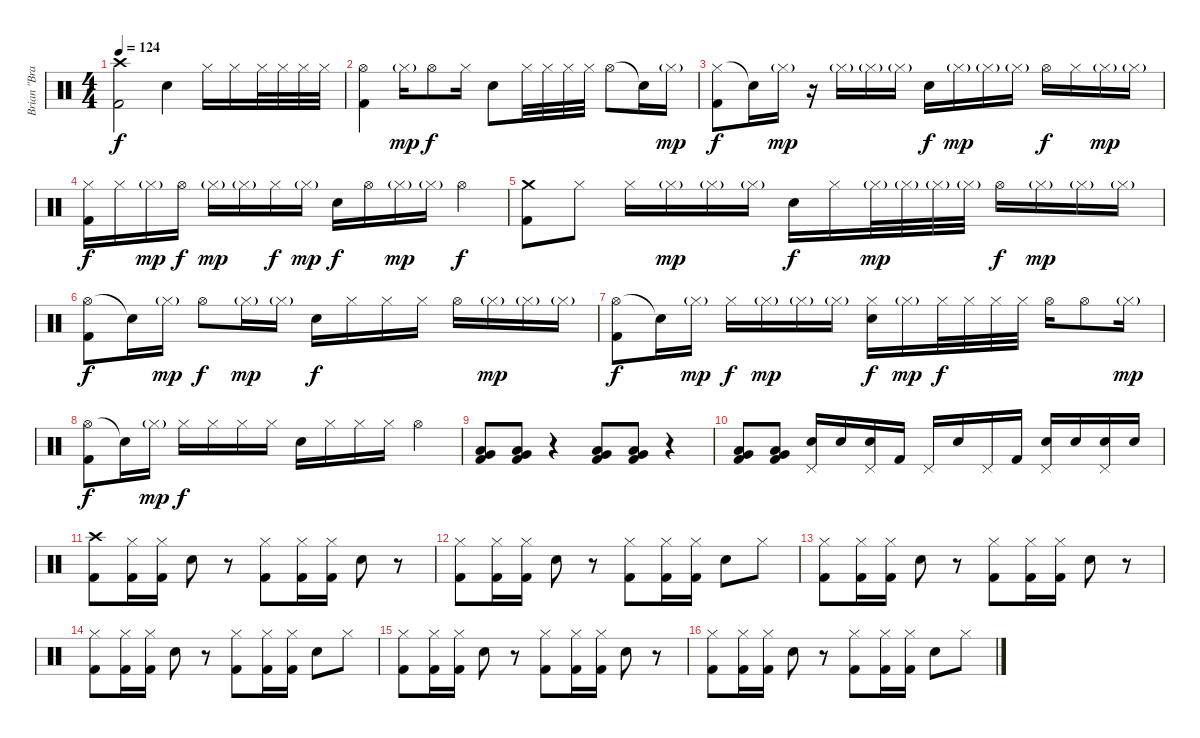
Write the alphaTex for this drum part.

\track ("Brian \"Brain\" Mantia / Drums" "Brian \"Bra") {instrument percussion}
\staff {score}
\articulation defaults
\ts (4 4)
\tempo 124
\clef neutral
\ks c
("Crash high (hit)" "Kick (hit) 2").2{dy f} "Electric Snare (hit)".4 "Hi-Hat (closed)".16 "Hi-Hat (closed)".16 "Hi-Hat (closed)".32 "Hi-Hat (closed)".32 "Hi-Hat (closed)".32 "Hi-Hat (closed)".32 |
("Hi-Hat (open)" "Kick (hit) 2").4 "Hi-Hat (closed)"{g}.16{dy mp} "Hi-Hat (open)".8{dy f} "Hi-Hat (closed)".16 "Electric Snare (hit)".8 "Hi-Hat (closed)".32 "Hi-Hat (closed)".32 "Hi-Hat (closed)".32 "Hi-Hat (closed)".32 "Hi-Hat (open)".8 "Snare (hit)"{t}.16 "Hi-Hat (closed)"{g}.16{dy mp} |
("Hi-Hat (closed)" "Kick (hit) 2").8{dy f} "Snare (hit)"{t}.16 "Hi-Hat (closed)"{g}.16{dy mp} r.16 "Hi-Hat (closed)"{g}.16 "Hi-Hat (closed)"{g}.16 "Hi-Hat (closed)"{g}.16 "Electric Snare (hit)".16{dy f} "Hi-Hat (closed)"{g}.16{dy mp} "Hi-Hat (closed)"{g}.16 "Hi-Hat (closed)"{g}.16 "Hi-Hat (open)".16{dy f} "Hi-Hat (closed)".16 "Hi-Hat (closed)"{g}.16{dy mp} "Hi-Hat (closed)"{g}.16 |
("Hi-Hat (closed)" "Kick (hit) 2").16{dy f} "Hi-Hat (closed)".16 "Hi-Hat (closed)"{g}.16{dy mp} "Hi-Hat (open)".16{dy f} "Hi-Hat (closed)"{g}.16{dy mp} "Hi-Hat (closed)"{g}.16 "Hi-Hat (closed)".16{dy f} "Hi-Hat (closed)"{g}.16{dy mp} "Electric Snare (hit)".16{dy f} "Hi-Hat (open)".16 "Hi-Hat (closed)"{g}.16{dy mp} "Hi-Hat (closed)"{g}.16 "Hi-Hat (open)".4{dy f} |
("Crash medium (hit)" "Kick (hit) 2").8 "Hi-Hat (closed)".8 "Hi-Hat (closed)".16 "Hi-Hat (closed)"{g}.16{dy mp} "Hi-Hat (closed)"{g}.16 "Hi-Hat (closed)"{g}.16 "Electric Snare (hit)".16{dy f} "Hi-Hat (closed)".16 "Hi-Hat (closed)"{g}.32{dy mp} "Hi-Hat (closed)"{g}.32 "Hi-Hat (closed)"{g}.32 "Hi-Hat (closed)"{g}.32 "Hi-Hat (open)".16{dy f} "Hi-Hat (closed)"{g}.16{dy mp} "Hi-Hat (closed)"{g}.16 "Hi-Hat (closed)"{g}.16 |
("Hi-Hat (open)" "Kick (hit) 2").8{dy f} "Snare (hit)"{t}.16 "Hi-Hat (closed)"{g}.16{dy mp} "Hi-Hat (open)".8{dy f} "Hi-Hat (closed)"{g}.16{dy mp} "Hi-Hat (closed)"{g}.16 "Electric Snare (hit)".16{dy f} "Hi-Hat (closed)".16 "Hi-Hat (closed)".16 "Hi-Hat (closed)".16 "Hi-Hat (open)".16 "Hi-Hat (closed)"{g}.16{dy mp} "Hi-Hat (closed)"{g}.16 "Hi-Hat (closed)"{g}.16 |
("Hi-Hat (open)" "Kick (hit) 2").8{dy f} "Snare (hit)"{t}.16 "Hi-Hat (closed)"{g}.16{dy mp} "Hi-Hat (closed)".16{dy f} "Hi-Hat (closed)"{g}.16{dy mp} "Hi-Hat (closed)"{g}.16 "Hi-Hat (closed)"{g}.16 ("Hi-Hat (closed)" "Electric Snare (hit)").16{dy f} "Hi-Hat (closed)"{g}.16{dy mp} "Hi-Hat (closed)".32{dy f} "Hi-Hat (closed)".32 "Hi-Hat (closed)".32 "Hi-Hat (closed)".32 "Hi-Hat (open)".16 "Hi-Hat (open)".8 "Hi-Hat (closed)"{g}.16{dy mp} |
("Hi-Hat (open)" "Kick (hit) 2").8{dy f} "Snare (hit)"{t}.16 "Hi-Hat (closed)"{g}.16{dy mp} "Hi-Hat (closed)".16{dy f} "Hi-Hat (closed)".16 "Hi-Hat (closed)".16 "Hi-Hat (closed)".16 "Electric Snare (hit)".16 "Hi-Hat (closed)".16 "Hi-Hat (closed)".16 "Hi-Hat (closed)".16 "Hi-Hat (open)".4 |
("Low Tom (hit)" "Very Low Tom (hit)" "Kick (hit) 2").8 ("Low Tom (hit)" "Very Low Tom (hit)" "Kick (hit) 2").8 r.4 ("Low Tom (hit)" "Very Low Tom (hit)" "Kick (hit) 2").8 ("Low Tom (hit)" "Very Low Tom (hit)" "Kick (hit) 2").8 r.4 |
("Low Tom (hit)" "Very Low Tom (hit)" "Kick (hit) 2").8 ("Low Tom (hit)" "Very Low Tom (hit)" "Kick (hit) 2").8 ("Pedal Hi-Hat (hit)" "Electric Snare (hit)").16 "Electric Snare (hit)".16 ("Pedal Hi-Hat (hit)" "Electric Snare (hit)").16 "Kick (hit) 2".16 "Pedal Hi-Hat (hit)".16 "Electric Snare (hit)".16 "Pedal Hi-Hat (hit)".16 "Kick (hit) 2".16 ("Pedal Hi-Hat (hit)" "Electric Snare (hit)").16 "Electric Snare (hit)".16 ("Pedal Hi-Hat (hit)" "Electric Snare (hit)").16 "Electric Snare (hit)".16 |
("Crash high (hit)" "Kick (hit) 2").8 ("Hi-Hat (closed)" "Kick (hit) 2").16 ("Hi-Hat (closed)" "Kick (hit) 2").16 "Electric Snare (hit)".8 r.8 ("Hi-Hat (closed)" "Kick (hit) 2").8 ("Hi-Hat (closed)" "Kick (hit) 2").16 ("Hi-Hat (closed)" "Kick (hit) 2").16 "Electric Snare (hit)".8 r.8 |
("Hi-Hat (closed)" "Kick (hit) 2").8 ("Hi-Hat (closed)" "Kick (hit) 2").16 ("Hi-Hat (closed)" "Kick (hit) 2").16 "Electric Snare (hit)".8 r.8 ("Hi-Hat (closed)" "Kick (hit) 2").8 ("Hi-Hat (closed)" "Kick (hit) 2").16 ("Hi-Hat (closed)" "Kick (hit) 2").16 "Electric Snare (hit)".8 "Hi-Hat (closed)".8 |
("Hi-Hat (closed)" "Kick (hit) 2").8 ("Hi-Hat (closed)" "Kick (hit) 2").16 ("Hi-Hat (closed)" "Kick (hit) 2").16 "Electric Snare (hit)".8 r.8 ("Hi-Hat (closed)" "Kick (hit) 2").8 ("Hi-Hat (closed)" "Kick (hit) 2").16 ("Hi-Hat (closed)" "Kick (hit) 2").16 "Electric Snare (hit)".8 r.8 |
("Hi-Hat (closed)" "Kick (hit) 2").8 ("Hi-Hat (closed)" "Kick (hit) 2").16 ("Hi-Hat (closed)" "Kick (hit) 2").16 "Electric Snare (hit)".8 r.8 ("Hi-Hat (closed)" "Kick (hit) 2").8 ("Hi-Hat (closed)" "Kick (hit) 2").16 ("Hi-Hat (closed)" "Kick (hit) 2").16 "Electric Snare (hit)".8 "Hi-Hat (closed)".8 |
("Hi-Hat (closed)" "Kick (hit) 2").8 ("Hi-Hat (closed)" "Kick (hit) 2").16 ("Hi-Hat (closed)" "Kick (hit) 2").16 "Electric Snare (hit)".8 r.8 ("Hi-Hat (closed)" "Kick (hit) 2").8 ("Hi-Hat (closed)" "Kick (hit) 2").16 ("Hi-Hat (closed)" "Kick (hit) 2").16 "Electric Snare (hit)".8 r.8 |
("Hi-Hat (closed)" "Kick (hit) 2").8 ("Hi-Hat (closed)" "Kick (hit) 2").16 ("Hi-Hat (closed)" "Kick (hit) 2").16 "Electric Snare (hit)".8 r.8 ("Hi-Hat (closed)" "Kick (hit) 2").8 ("Hi-Hat (closed)" "Kick (hit) 2").16 ("Hi-Hat (closed)" "Kick (hit) 2").16 "Electric Snare (hit)".8 "Hi-Hat (closed)".8
